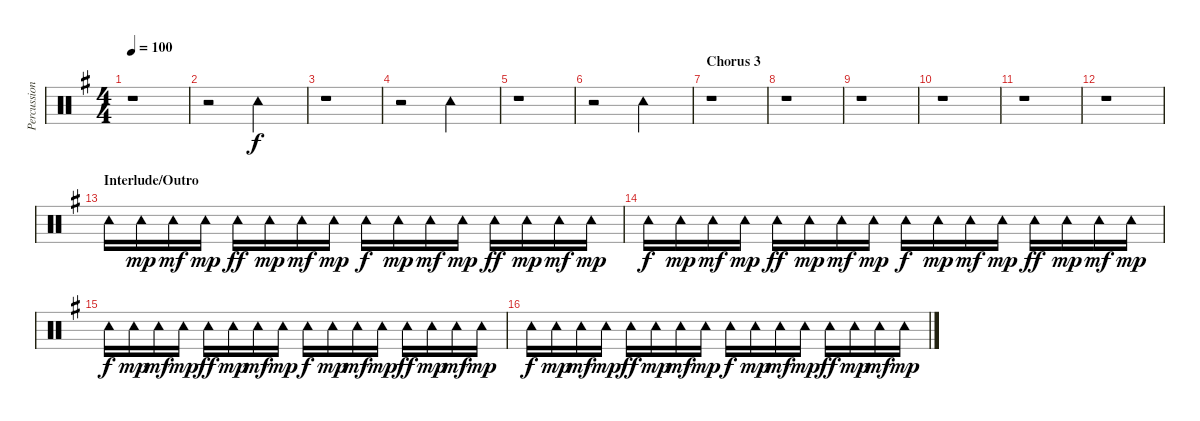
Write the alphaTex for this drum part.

\track ("Percussion" "Percussion") {instrument percussion}
\staff {score}
\articulation defaults
\ts (4 4)
\tempo 100
\clef neutral
\ks g
r.1{dy f} |
r.2 "Tambourine (hit)".2 |
r.1 |
r.2 "Tambourine (hit)".2 |
r.1 |
r.2 "Tambourine (hit)".2 |
\section ("" "Chorus 3")
r.1 |
r.1 |
r.1 |
r.1 |
r.1 |
r.1 |
\section ("" "Interlude/Outro")
"Tambourine (hit)".16 "Tambourine (hit)".16{dy mp} "Tambourine (hit)".16{dy mf} "Tambourine (hit)".16{dy mp} "Tambourine (hit)".16{dy ff} "Tambourine (hit)".16{dy mp} "Tambourine (hit)".16{dy mf} "Tambourine (hit)".16{dy mp} "Tambourine (hit)".16{dy f} "Tambourine (hit)".16{dy mp} "Tambourine (hit)".16{dy mf} "Tambourine (hit)".16{dy mp} "Tambourine (hit)".16{dy ff} "Tambourine (hit)".16{dy mp} "Tambourine (hit)".16{dy mf} "Tambourine (hit)".16{dy mp} |
"Tambourine (hit)".16{dy f} "Tambourine (hit)".16{dy mp} "Tambourine (hit)".16{dy mf} "Tambourine (hit)".16{dy mp} "Tambourine (hit)".16{dy ff} "Tambourine (hit)".16{dy mp} "Tambourine (hit)".16{dy mf} "Tambourine (hit)".16{dy mp} "Tambourine (hit)".16{dy f} "Tambourine (hit)".16{dy mp} "Tambourine (hit)".16{dy mf} "Tambourine (hit)".16{dy mp} "Tambourine (hit)".16{dy ff} "Tambourine (hit)".16{dy mp} "Tambourine (hit)".16{dy mf} "Tambourine (hit)".16{dy mp} |
"Tambourine (hit)".16{dy f} "Tambourine (hit)".16{dy mp} "Tambourine (hit)".16{dy mf} "Tambourine (hit)".16{dy mp} "Tambourine (hit)".16{dy ff} "Tambourine (hit)".16{dy mp} "Tambourine (hit)".16{dy mf} "Tambourine (hit)".16{dy mp} "Tambourine (hit)".16{dy f} "Tambourine (hit)".16{dy mp} "Tambourine (hit)".16{dy mf} "Tambourine (hit)".16{dy mp} "Tambourine (hit)".16{dy ff} "Tambourine (hit)".16{dy mp} "Tambourine (hit)".16{dy mf} "Tambourine (hit)".16{dy mp} |
"Tambourine (hit)".16{dy f} "Tambourine (hit)".16{dy mp} "Tambourine (hit)".16{dy mf} "Tambourine (hit)".16{dy mp} "Tambourine (hit)".16{dy ff} "Tambourine (hit)".16{dy mp} "Tambourine (hit)".16{dy mf} "Tambourine (hit)".16{dy mp} "Tambourine (hit)".16{dy f} "Tambourine (hit)".16{dy mp} "Tambourine (hit)".16{dy mf} "Tambourine (hit)".16{dy mp} "Tambourine (hit)".16{dy ff} "Tambourine (hit)".16{dy mp} "Tambourine (hit)".16{dy mf} "Tambourine (hit)".16{dy mp}
